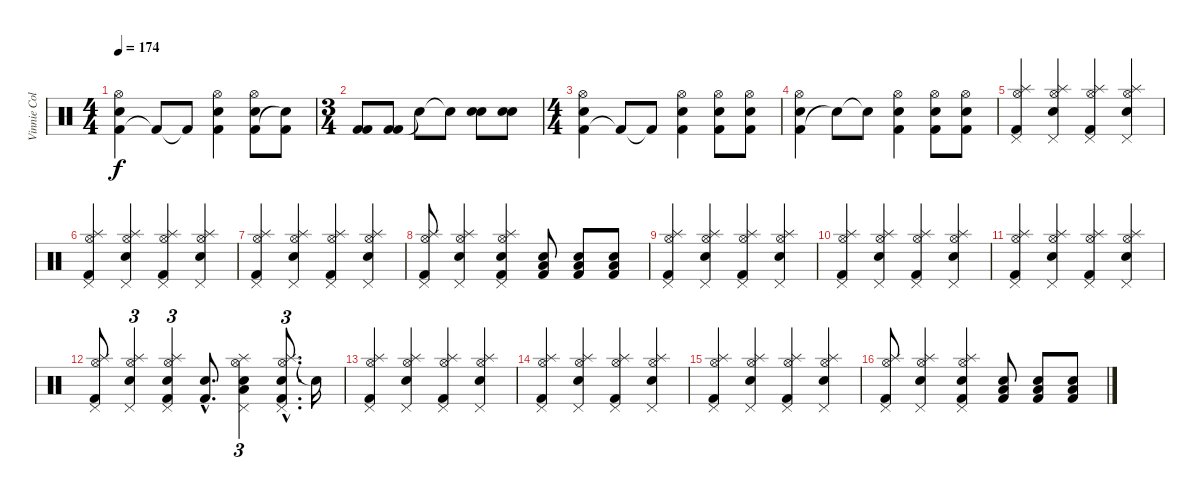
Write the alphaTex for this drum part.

\track ("Vinnie Colaiuta" "Vinnie Col") {instrument percussion}
\staff {score}
\articulation defaults
\ts (4 4)
\tempo 174
\clef neutral
\ks c
("Kick (hit) 2" "Snare (hit) 2" "Hi-Hat (open)").4{dy f} "Kick (hit) 2"{t}.8 "Kick (hit) 2"{t}.8 ("Kick (hit) 2" "Snare (hit) 2" "Hi-Hat (open)").4 ("Kick (hit) 2" "Snare (hit) 2" "Hi-Hat (open)").8 ("Snare (hit)"{t} "Kick (hit) 2").8 |
\ts (3 4)
("Kick (hit) 2" "Kick (hit) 2").8 ("Kick (hit) 2" "Kick (hit) 2").8 "Snare (hit) 2"{t}.8 "Snare (hit) 2"{t}.8 ("Snare (hit) 2" "Snare (hit) 2").8 ("Snare (hit) 2" "Snare (hit) 2").8 |
\ts (4 4)
("Kick (hit) 2" "Snare (hit) 2" "Hi-Hat (open)").4 "Kick (hit) 2"{t}.8 "Kick (hit) 2"{t}.8 ("Kick (hit) 2" "Snare (hit) 2" "Hi-Hat (open)").4 ("Kick (hit) 2" "Snare (hit) 2" "Hi-Hat (open)").8 ("Kick (hit) 2" "Snare (hit) 2" "Hi-Hat (open)").8 |
("Kick (hit) 2" "Snare (hit) 2" "Hi-Hat (open)").4 "Snare (hit)"{t}.8 "Snare (hit)"{t}.8 ("Kick (hit) 2" "Snare (hit) 2" "Hi-Hat (open)").4 ("Kick (hit) 2" "Snare (hit) 2" "Hi-Hat (open)").8 ("Kick (hit) 2" "Snare (hit) 2" "Hi-Hat (open)").8 |
("Splash (hit)" "Kick (hit) 2" "Pedal Hi-Hat (hit)" "Hi-Hat (open)").4 ("Splash (hit)" "Snare (hit) 2" "Pedal Hi-Hat (hit)" "Hi-Hat (open)").4 ("Splash (hit)" "Kick (hit) 2" "Pedal Hi-Hat (hit)" "Hi-Hat (open)").4 ("Splash (hit)" "Snare (hit) 2" "Pedal Hi-Hat (hit)" "Hi-Hat (open)").4 |
("Splash (hit)" "Kick (hit) 2" "Pedal Hi-Hat (hit)" "Hi-Hat (open)").4 ("Splash (hit)" "Snare (hit) 2" "Pedal Hi-Hat (hit)" "Hi-Hat (open)").4 ("Splash (hit)" "Kick (hit) 2" "Pedal Hi-Hat (hit)" "Hi-Hat (open)").4 ("Splash (hit)" "Snare (hit) 2" "Pedal Hi-Hat (hit)" "Hi-Hat (open)").4 |
("Splash (hit)" "Kick (hit) 2" "Pedal Hi-Hat (hit)" "Hi-Hat (open)").4 ("Splash (hit)" "Snare (hit) 2" "Pedal Hi-Hat (hit)" "Hi-Hat (open)").4 ("Splash (hit)" "Kick (hit) 2" "Pedal Hi-Hat (hit)" "Hi-Hat (open)").4 ("Splash (hit)" "Snare (hit) 2" "Pedal Hi-Hat (hit)" "Hi-Hat (open)").4 |
("Splash (hit)" "Kick (hit) 2" "Pedal Hi-Hat (hit)" "Hi-Hat (open)").8 ("Splash (hit)" "Snare (hit) 2" "Pedal Hi-Hat (hit)" "Hi-Hat (open)").4 ("Splash (hit)" "Kick (hit) 2" "Snare (hit) 2" "Pedal Hi-Hat (hit)" "Hi-Hat (open)").4 ("Kick (hit) 2" "Low Floor Tom (hit)" "Snare (hit) 2").8 ("Kick (hit) 2" "Low Floor Tom (hit)" "Snare (hit) 2").8 ("Kick (hit) 2" "Low Floor Tom (hit)" "Snare (hit) 2").8 |
("Splash (hit)" "Kick (hit) 2" "Pedal Hi-Hat (hit)" "Hi-Hat (open)").4 ("Splash (hit)" "Snare (hit) 2" "Pedal Hi-Hat (hit)" "Hi-Hat (open)").4 ("Splash (hit)" "Kick (hit) 2" "Pedal Hi-Hat (hit)" "Hi-Hat (open)").4 ("Splash (hit)" "Snare (hit) 2" "Pedal Hi-Hat (hit)" "Hi-Hat (open)").4 |
("Splash (hit)" "Kick (hit) 2" "Pedal Hi-Hat (hit)" "Hi-Hat (open)").4 ("Splash (hit)" "Snare (hit) 2" "Pedal Hi-Hat (hit)" "Hi-Hat (open)").4 ("Splash (hit)" "Kick (hit) 2" "Pedal Hi-Hat (hit)" "Hi-Hat (open)").4 ("Splash (hit)" "Snare (hit) 2" "Pedal Hi-Hat (hit)" "Hi-Hat (open)").4 |
("Splash (hit)" "Kick (hit) 2" "Pedal Hi-Hat (hit)" "Hi-Hat (open)").4 ("Splash (hit)" "Snare (hit) 2" "Pedal Hi-Hat (hit)" "Hi-Hat (open)").4 ("Splash (hit)" "Kick (hit) 2" "Pedal Hi-Hat (hit)" "Hi-Hat (open)").4 ("Splash (hit)" "Snare (hit) 2" "Pedal Hi-Hat (hit)" "Hi-Hat (open)").4 |
("Splash (hit)" "Kick (hit) 2" "Pedal Hi-Hat (hit)" "Hi-Hat (open)").8 ("Splash (hit)" "Snare (hit) 2" "Pedal Hi-Hat (hit)" "Hi-Hat (open)").4{tu (3 2)} ("Splash (hit)" "Kick (hit) 2" "Snare (hit) 2" "Pedal Hi-Hat (hit)" "Hi-Hat (open)").4{tu (3 2)} ("Kick (hit) 2"{hac} "Snare (hit) 2"{hac}).8{d} ("Splash (hit)" "Low Floor Tom (hit)" "Snare (hit) 2" "Pedal Hi-Hat (hit)" "Hi-Hat (open)").4{tu (3 2)} ("Splash (hit)"{hac} "Kick (hit) 2"{hac} "Snare (hit) 2"{hac} "Pedal Hi-Hat (hit)"{hac} "Hi-Hat (open)"{hac}).8{d tu (3 2)} "Snare (hit)"{t}.16 |
("Splash (hit)" "Kick (hit) 2" "Pedal Hi-Hat (hit)" "Hi-Hat (open)").4 ("Splash (hit)" "Snare (hit) 2" "Pedal Hi-Hat (hit)" "Hi-Hat (open)").4 ("Splash (hit)" "Kick (hit) 2" "Pedal Hi-Hat (hit)" "Hi-Hat (open)").4 ("Splash (hit)" "Snare (hit) 2" "Pedal Hi-Hat (hit)" "Hi-Hat (open)").4 |
("Splash (hit)" "Kick (hit) 2" "Pedal Hi-Hat (hit)" "Hi-Hat (open)").4 ("Splash (hit)" "Snare (hit) 2" "Pedal Hi-Hat (hit)" "Hi-Hat (open)").4 ("Splash (hit)" "Kick (hit) 2" "Pedal Hi-Hat (hit)" "Hi-Hat (open)").4 ("Splash (hit)" "Snare (hit) 2" "Pedal Hi-Hat (hit)" "Hi-Hat (open)").4 |
("Splash (hit)" "Kick (hit) 2" "Pedal Hi-Hat (hit)" "Hi-Hat (open)").4 ("Splash (hit)" "Snare (hit) 2" "Pedal Hi-Hat (hit)" "Hi-Hat (open)").4 ("Splash (hit)" "Kick (hit) 2" "Pedal Hi-Hat (hit)" "Hi-Hat (open)").4 ("Splash (hit)" "Snare (hit) 2" "Pedal Hi-Hat (hit)" "Hi-Hat (open)").4 |
("Splash (hit)" "Kick (hit) 2" "Pedal Hi-Hat (hit)" "Hi-Hat (open)").8 ("Splash (hit)" "Snare (hit) 2" "Pedal Hi-Hat (hit)" "Hi-Hat (open)").4 ("Splash (hit)" "Kick (hit) 2" "Snare (hit) 2" "Pedal Hi-Hat (hit)" "Hi-Hat (open)").4 ("Kick (hit) 2" "Low Floor Tom (hit)" "Snare (hit) 2").8 ("Kick (hit) 2" "Low Floor Tom (hit)" "Snare (hit) 2").8 ("Kick (hit) 2" "Low Floor Tom (hit)" "Snare (hit) 2").8
